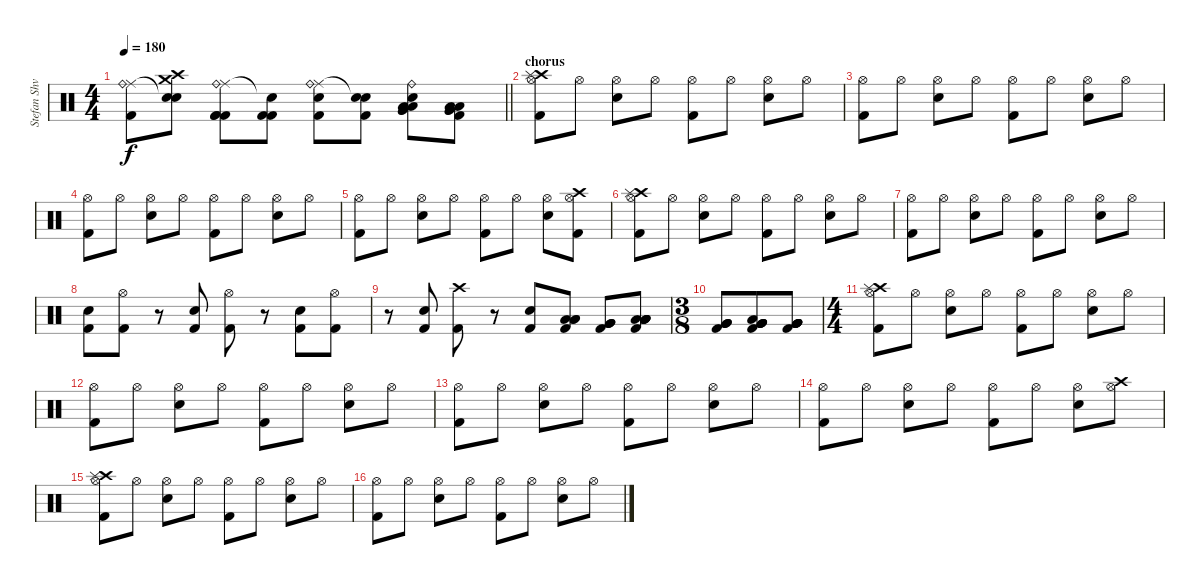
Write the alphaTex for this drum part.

\track ("Stefan Shvartsman" "Stefan Shv") {instrument percussion}
\staff {score}
\articulation defaults
\ts (4 4)
\tempo 180
\clef neutral
\barLineRight lightlight
\ks c
("Ride (middle)" "Ride (bell)" "Kick (hit) 2").8{dy f} ("Snare (hit)"{t} "Crash medium (hit)" "Crash high (hit)" "Snare (hit) 2").8 ("Ride (middle)" "Ride (bell)" "Kick (hit) 2" "Kick (hit) 2" "Kick (hit) 2").8 ("Snare (hit)"{t} "Kick (hit) 2" "Kick (hit) 2").8 ("Ride (middle)" "Ride (bell)" "Kick (hit) 2" "Snare (hit) 2").8 ("Snare (hit)"{t} "Kick (hit) 2" "Snare (hit) 2").8 ("Very Low Tom (hit)" "Ride (bell)" "Snare (hit) 2" "Low Tom (hit)" "Very Low Tom (hit)" "Low Tom (hit)").8 ("Very Low Tom (hit)" "Kick (hit) 2" "Low Tom (hit)" "Very Low Tom (hit)" "Low Tom (hit)").8 |
\section ("" "chorus")
("Hi-Hat (open)" "Kick (hit) 2" "Crash high (hit)" "Splash (hit)").8 "Hi-Hat (open)".8 ("Hi-Hat (open)" "Snare (hit) 2").8 "Hi-Hat (open)".8 ("Hi-Hat (open)" "Kick (hit) 2").8 "Hi-Hat (open)".8 ("Hi-Hat (open)" "Snare (hit) 2").8 "Hi-Hat (open)".8 |
("Hi-Hat (open)" "Kick (hit) 2").8 "Hi-Hat (open)".8 ("Hi-Hat (open)" "Snare (hit) 2").8 "Hi-Hat (open)".8 ("Hi-Hat (open)" "Kick (hit) 2").8 "Hi-Hat (open)".8 ("Hi-Hat (open)" "Snare (hit) 2").8 "Hi-Hat (open)".8 |
("Hi-Hat (open)" "Kick (hit) 2").8 "Hi-Hat (open)".8 ("Hi-Hat (open)" "Snare (hit) 2").8 "Hi-Hat (open)".8 ("Hi-Hat (open)" "Kick (hit) 2").8 "Hi-Hat (open)".8 ("Hi-Hat (open)" "Snare (hit) 2").8 "Hi-Hat (open)".8 |
("Hi-Hat (open)" "Kick (hit) 2").8 "Hi-Hat (open)".8 ("Hi-Hat (open)" "Snare (hit) 2").8 "Hi-Hat (open)".8 ("Hi-Hat (open)" "Kick (hit) 2").8 "Hi-Hat (open)".8 ("Hi-Hat (open)" "Snare (hit) 2").8 ("Hi-Hat (open)" "Crash high (hit)" "Kick (hit) 2").8 |
("Hi-Hat (open)" "Kick (hit) 2" "Crash high (hit)" "Splash (hit)").8 "Hi-Hat (open)".8 ("Hi-Hat (open)" "Snare (hit) 2").8 "Hi-Hat (open)".8 ("Hi-Hat (open)" "Kick (hit) 2").8 "Hi-Hat (open)".8 ("Hi-Hat (open)" "Snare (hit) 2").8 "Hi-Hat (open)".8 |
("Hi-Hat (open)" "Kick (hit) 2").8 "Hi-Hat (open)".8 ("Hi-Hat (open)" "Snare (hit) 2").8 "Hi-Hat (open)".8 ("Hi-Hat (open)" "Kick (hit) 2").8 "Hi-Hat (open)".8 ("Hi-Hat (open)" "Snare (hit) 2").8 "Hi-Hat (open)".8 |
("Kick (hit) 2" "Snare (hit) 2").8 ("Hi-Hat (open)" "Kick (hit) 2").8 r.8 ("Kick (hit) 2" "Snare (hit) 2").8 ("Hi-Hat (open)" "Kick (hit) 2").8 r.8 ("Kick (hit) 2" "Snare (hit) 2").8 ("Hi-Hat (open)" "Kick (hit) 2").8 |
r.8 ("Kick (hit) 2" "Snare (hit) 2").8 ("Crash high (hit)" "Kick (hit) 2").8 r.8 ("Kick (hit) 2" "Snare (hit) 2").8 ("Low Tom (hit)" "Low Tom (hit)" "Low Tom (hit)" "Kick (hit) 2").8 ("Kick (hit) 2" "Very Low Tom (hit)" "Very Low Tom (hit)" "Very Low Tom (hit)").8 ("Kick (hit) 2" "Low Floor Tom (hit)" "Low Floor Tom (hit)" "Low Floor Tom (hit)" "Low Floor Tom (hit)" "Low Floor Tom (hit)").8 |
\ts (3 8)
("Kick (hit) 2" "Very Low Tom (hit)" "Very Low Tom (hit)" "Very Low Tom (hit)").8 ("Kick (hit) 2" "Very Low Tom (hit)" "Very Low Tom (hit)" "Very Low Tom (hit)" "Very Low Tom (hit)" "Low Floor Tom (hit)").8 ("Kick (hit) 2" "Very Low Tom (hit)" "Very Low Tom (hit)" "Very Low Tom (hit)" "Very Low Tom (hit)" "Very Low Tom (hit)").8 |
\ts (4 4)
("Hi-Hat (open)" "Kick (hit) 2" "Crash high (hit)" "Splash (hit)").8 "Hi-Hat (open)".8 ("Hi-Hat (open)" "Snare (hit) 2").8 "Hi-Hat (open)".8 ("Hi-Hat (open)" "Kick (hit) 2").8 "Hi-Hat (open)".8 ("Hi-Hat (open)" "Snare (hit) 2").8 "Hi-Hat (open)".8 |
("Hi-Hat (open)" "Kick (hit) 2").8 "Hi-Hat (open)".8 ("Hi-Hat (open)" "Snare (hit) 2").8 "Hi-Hat (open)".8 ("Hi-Hat (open)" "Kick (hit) 2").8 "Hi-Hat (open)".8 ("Hi-Hat (open)" "Snare (hit) 2").8 "Hi-Hat (open)".8 |
("Hi-Hat (open)" "Kick (hit) 2").8 "Hi-Hat (open)".8 ("Hi-Hat (open)" "Snare (hit) 2").8 "Hi-Hat (open)".8 ("Hi-Hat (open)" "Kick (hit) 2").8 "Hi-Hat (open)".8 ("Hi-Hat (open)" "Snare (hit) 2").8 "Hi-Hat (open)".8 |
("Hi-Hat (open)" "Kick (hit) 2").8 "Hi-Hat (open)".8 ("Hi-Hat (open)" "Snare (hit) 2").8 "Hi-Hat (open)".8 ("Hi-Hat (open)" "Kick (hit) 2").8 "Hi-Hat (open)".8 ("Hi-Hat (open)" "Snare (hit) 2").8 ("Hi-Hat (open)" "Crash high (hit)").8 |
("Hi-Hat (open)" "Kick (hit) 2" "Crash high (hit)" "Splash (hit)").8 "Hi-Hat (open)".8 ("Hi-Hat (open)" "Snare (hit) 2").8 "Hi-Hat (open)".8 ("Hi-Hat (open)" "Kick (hit) 2").8 "Hi-Hat (open)".8 ("Hi-Hat (open)" "Snare (hit) 2").8 "Hi-Hat (open)".8 |
("Hi-Hat (open)" "Kick (hit) 2").8 "Hi-Hat (open)".8 ("Hi-Hat (open)" "Snare (hit) 2").8 "Hi-Hat (open)".8 ("Hi-Hat (open)" "Kick (hit) 2").8 "Hi-Hat (open)".8 ("Hi-Hat (open)" "Snare (hit) 2").8 "Hi-Hat (open)".8
